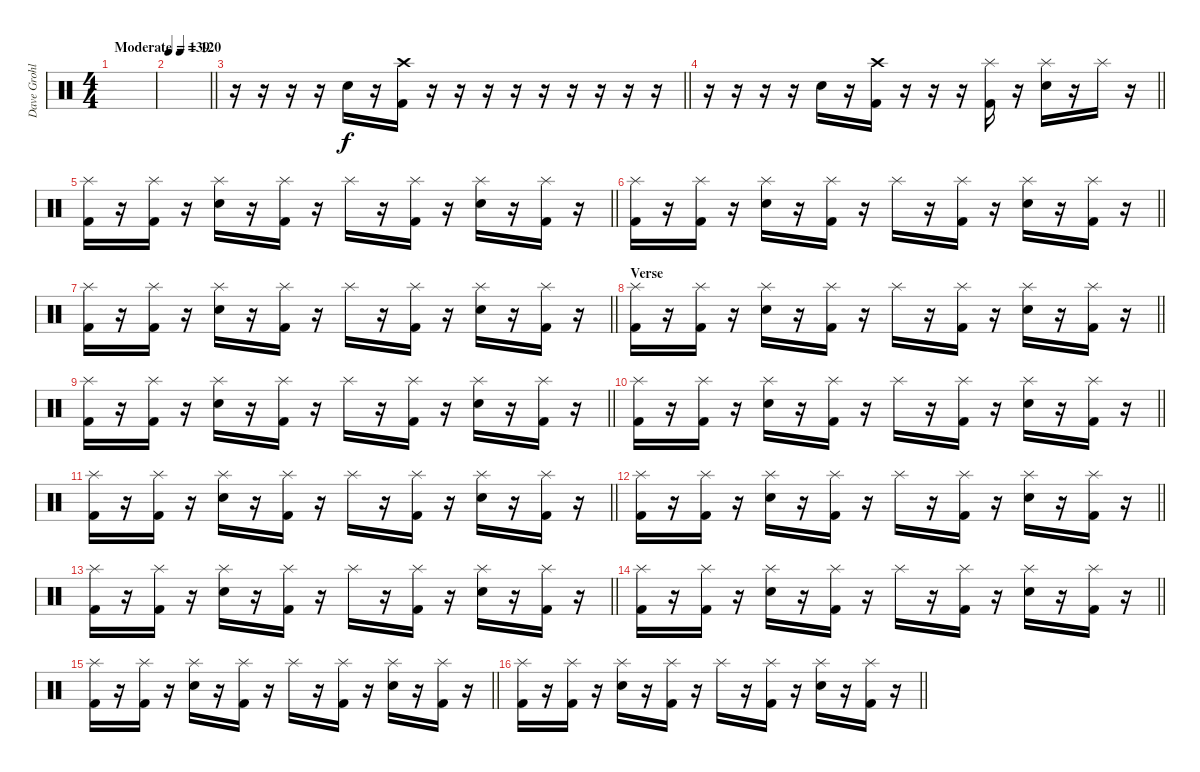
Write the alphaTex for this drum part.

\track ("Dave Grohl" "Dave Grohl") {instrument percussion}
\staff {score}
\articulation defaults
\ts (4 4)
\tempo (120 "Moderate")
\clef neutral
\ks c
|
\tempo 139
\barLineRight lightlight
|
\barLineRight lightlight
r.16 r.16 r.16 r.16 "Electric Snare (hit)".16 r.16 ("Crash high (hit)" "Kick (hit) 2").16 r.16 r.16 r.16 r.16 r.16 r.16 r.16 r.16 r.16 |
\barLineRight lightlight
r.16 r.16 r.16 r.16 "Electric Snare (hit)".16 r.16 ("Crash high (hit)" "Kick (hit) 2").16 r.16 r.16 r.16 ("Splash (hit)" "Kick (hit) 2").16 r.16 ("Splash (hit)" "Electric Snare (hit)").16 r.16 "Splash (hit)".16 r.16 |
\barLineRight lightlight
("Splash (hit)" "Kick (hit) 2").16 r.16 ("Splash (hit)" "Kick (hit) 2").16 r.16 ("Splash (hit)" "Electric Snare (hit)").16 r.16 ("Splash (hit)" "Kick (hit) 2").16 r.16 "Splash (hit)".16 r.16 ("Splash (hit)" "Kick (hit) 2").16 r.16 ("Splash (hit)" "Electric Snare (hit)").16 r.16 ("Splash (hit)" "Kick (hit) 2").16 r.16 |
\barLineRight lightlight
("Splash (hit)" "Kick (hit) 2").16 r.16 ("Splash (hit)" "Kick (hit) 2").16 r.16 ("Splash (hit)" "Electric Snare (hit)").16 r.16 ("Splash (hit)" "Kick (hit) 2").16 r.16 "Splash (hit)".16 r.16 ("Splash (hit)" "Kick (hit) 2").16 r.16 ("Splash (hit)" "Electric Snare (hit)").16 r.16 ("Splash (hit)" "Kick (hit) 2").16 r.16 |
\barLineRight lightlight
("Splash (hit)" "Kick (hit) 2").16 r.16 ("Splash (hit)" "Kick (hit) 2").16 r.16 ("Splash (hit)" "Electric Snare (hit)").16 r.16 ("Splash (hit)" "Kick (hit) 2").16 r.16 "Splash (hit)".16 r.16 ("Splash (hit)" "Kick (hit) 2").16 r.16 ("Splash (hit)" "Electric Snare (hit)").16 r.16 ("Splash (hit)" "Kick (hit) 2").16 r.16 |
\section ("" "Verse")
\barLineRight lightlight
("Splash (hit)" "Kick (hit) 2").16 r.16 ("Splash (hit)" "Kick (hit) 2").16 r.16 ("Splash (hit)" "Electric Snare (hit)").16 r.16 ("Splash (hit)" "Kick (hit) 2").16 r.16 "Splash (hit)".16 r.16 ("Splash (hit)" "Kick (hit) 2").16 r.16 ("Splash (hit)" "Electric Snare (hit)").16 r.16 ("Splash (hit)" "Kick (hit) 2").16 r.16 |
\barLineRight lightlight
("Splash (hit)" "Kick (hit) 2").16 r.16 ("Splash (hit)" "Kick (hit) 2").16 r.16 ("Splash (hit)" "Electric Snare (hit)").16 r.16 ("Splash (hit)" "Kick (hit) 2").16 r.16 "Splash (hit)".16 r.16 ("Splash (hit)" "Kick (hit) 2").16 r.16 ("Splash (hit)" "Electric Snare (hit)").16 r.16 ("Splash (hit)" "Kick (hit) 2").16 r.16 |
\barLineRight lightlight
("Splash (hit)" "Kick (hit) 2").16 r.16 ("Splash (hit)" "Kick (hit) 2").16 r.16 ("Splash (hit)" "Electric Snare (hit)").16 r.16 ("Splash (hit)" "Kick (hit) 2").16 r.16 "Splash (hit)".16 r.16 ("Splash (hit)" "Kick (hit) 2").16 r.16 ("Splash (hit)" "Electric Snare (hit)").16 r.16 ("Splash (hit)" "Kick (hit) 2").16 r.16 |
\barLineRight lightlight
("Splash (hit)" "Kick (hit) 2").16 r.16 ("Splash (hit)" "Kick (hit) 2").16 r.16 ("Splash (hit)" "Electric Snare (hit)").16 r.16 ("Splash (hit)" "Kick (hit) 2").16 r.16 "Splash (hit)".16 r.16 ("Splash (hit)" "Kick (hit) 2").16 r.16 ("Splash (hit)" "Electric Snare (hit)").16 r.16 ("Splash (hit)" "Kick (hit) 2").16 r.16 |
\barLineRight lightlight
("Splash (hit)" "Kick (hit) 2").16 r.16 ("Splash (hit)" "Kick (hit) 2").16 r.16 ("Splash (hit)" "Electric Snare (hit)").16 r.16 ("Splash (hit)" "Kick (hit) 2").16 r.16 "Splash (hit)".16 r.16 ("Splash (hit)" "Kick (hit) 2").16 r.16 ("Splash (hit)" "Electric Snare (hit)").16 r.16 ("Splash (hit)" "Kick (hit) 2").16 r.16 |
\barLineRight lightlight
("Splash (hit)" "Kick (hit) 2").16 r.16 ("Splash (hit)" "Kick (hit) 2").16 r.16 ("Splash (hit)" "Electric Snare (hit)").16 r.16 ("Splash (hit)" "Kick (hit) 2").16 r.16 "Splash (hit)".16 r.16 ("Splash (hit)" "Kick (hit) 2").16 r.16 ("Splash (hit)" "Electric Snare (hit)").16 r.16 ("Splash (hit)" "Kick (hit) 2").16 r.16 |
\barLineRight lightlight
("Splash (hit)" "Kick (hit) 2").16 r.16 ("Splash (hit)" "Kick (hit) 2").16 r.16 ("Splash (hit)" "Electric Snare (hit)").16 r.16 ("Splash (hit)" "Kick (hit) 2").16 r.16 "Splash (hit)".16 r.16 ("Splash (hit)" "Kick (hit) 2").16 r.16 ("Splash (hit)" "Electric Snare (hit)").16 r.16 ("Splash (hit)" "Kick (hit) 2").16 r.16 |
\barLineRight lightlight
("Splash (hit)" "Kick (hit) 2").16 r.16 ("Splash (hit)" "Kick (hit) 2").16 r.16 ("Splash (hit)" "Electric Snare (hit)").16 r.16 ("Splash (hit)" "Kick (hit) 2").16 r.16 "Splash (hit)".16 r.16 ("Splash (hit)" "Kick (hit) 2").16 r.16 ("Splash (hit)" "Electric Snare (hit)").16 r.16 ("Splash (hit)" "Kick (hit) 2").16 r.16 |
\barLineRight lightlight
("Splash (hit)" "Kick (hit) 2").16 r.16 ("Splash (hit)" "Kick (hit) 2").16 r.16 ("Splash (hit)" "Electric Snare (hit)").16 r.16 ("Splash (hit)" "Kick (hit) 2").16 r.16 "Splash (hit)".16 r.16 ("Splash (hit)" "Kick (hit) 2").16 r.16 ("Splash (hit)" "Electric Snare (hit)").16 r.16 ("Splash (hit)" "Kick (hit) 2").16 r.16
